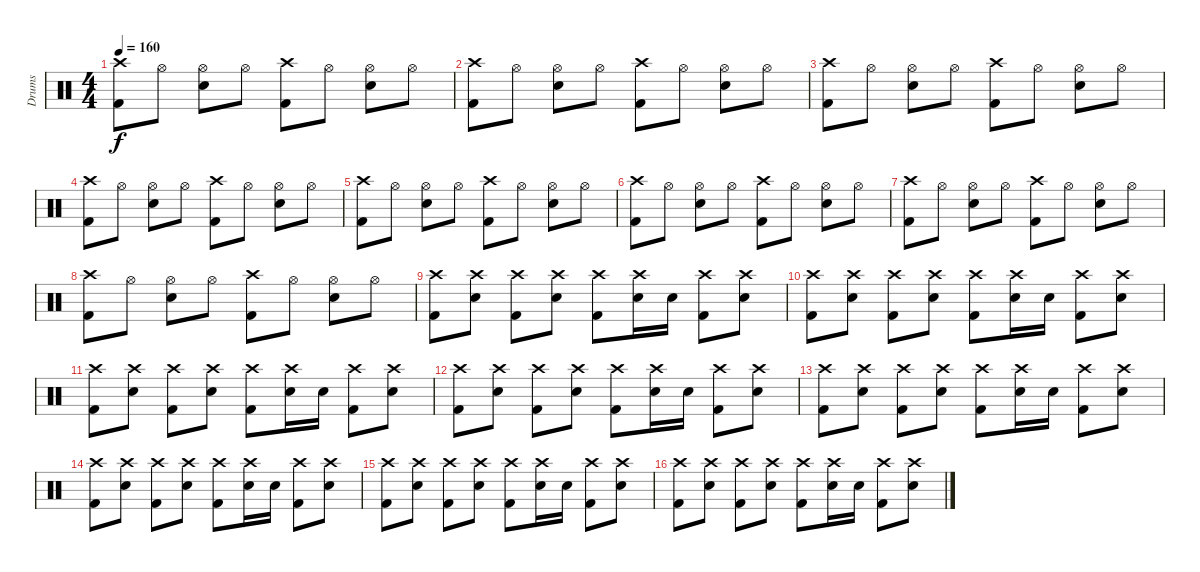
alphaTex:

\track ("Drums" "Drums") {instrument percussion}
\staff {score}
\articulation defaults
\ts (4 4)
\tempo 160
\clef neutral
\ks c
("Crash high (hit)" "Kick (hit) 2").8{dy f} "Hi-Hat (open)".8 ("Snare (hit) 2" "Hi-Hat (open)").8 "Hi-Hat (open)".8 ("Crash high (hit)" "Kick (hit) 2").8 "Hi-Hat (open)".8 ("Snare (hit) 2" "Hi-Hat (open)").8 "Hi-Hat (open)".8 |
("Crash high (hit)" "Kick (hit) 2").8 "Hi-Hat (open)".8 ("Snare (hit) 2" "Hi-Hat (open)").8 "Hi-Hat (open)".8 ("Crash high (hit)" "Kick (hit) 2").8 "Hi-Hat (open)".8 ("Snare (hit) 2" "Hi-Hat (open)").8 "Hi-Hat (open)".8 |
("Crash high (hit)" "Kick (hit) 2").8 "Hi-Hat (open)".8 ("Snare (hit) 2" "Hi-Hat (open)").8 "Hi-Hat (open)".8 ("Crash high (hit)" "Kick (hit) 2").8 "Hi-Hat (open)".8 ("Snare (hit) 2" "Hi-Hat (open)").8 "Hi-Hat (open)".8 |
("Crash high (hit)" "Kick (hit) 2").8 "Hi-Hat (open)".8 ("Snare (hit) 2" "Hi-Hat (open)").8 "Hi-Hat (open)".8 ("Crash high (hit)" "Kick (hit) 2").8 "Hi-Hat (open)".8 ("Snare (hit) 2" "Hi-Hat (open)").8 "Hi-Hat (open)".8 |
("Crash high (hit)" "Kick (hit) 2").8 "Hi-Hat (open)".8 ("Snare (hit) 2" "Hi-Hat (open)").8 "Hi-Hat (open)".8 ("Crash high (hit)" "Kick (hit) 2").8 "Hi-Hat (open)".8 ("Snare (hit) 2" "Hi-Hat (open)").8 "Hi-Hat (open)".8 |
("Crash high (hit)" "Kick (hit) 2").8 "Hi-Hat (open)".8 ("Snare (hit) 2" "Hi-Hat (open)").8 "Hi-Hat (open)".8 ("Crash high (hit)" "Kick (hit) 2").8 "Hi-Hat (open)".8 ("Snare (hit) 2" "Hi-Hat (open)").8 "Hi-Hat (open)".8 |
("Crash high (hit)" "Kick (hit) 2").8 "Hi-Hat (open)".8 ("Snare (hit) 2" "Hi-Hat (open)").8 "Hi-Hat (open)".8 ("Crash high (hit)" "Kick (hit) 2").8 "Hi-Hat (open)".8 ("Snare (hit) 2" "Hi-Hat (open)").8 "Hi-Hat (open)".8 |
("Crash high (hit)" "Kick (hit) 2").8 "Hi-Hat (open)".8 ("Snare (hit) 2" "Hi-Hat (open)").8 "Hi-Hat (open)".8 ("Crash high (hit)" "Kick (hit) 2").8 "Hi-Hat (open)".8 ("Snare (hit) 2" "Hi-Hat (open)").8 "Hi-Hat (open)".8 |
("Crash high (hit)" "Kick (hit) 2").8 ("Crash high (hit)" "Snare (hit) 2").8 ("Crash high (hit)" "Kick (hit) 2").8 ("Crash high (hit)" "Snare (hit) 2").8 ("Crash high (hit)" "Kick (hit) 2").8 ("Crash high (hit)" "Snare (hit) 2").16 "Snare (hit) 2".16 ("Crash high (hit)" "Kick (hit) 2").8 ("Crash high (hit)" "Snare (hit) 2").8 |
("Crash high (hit)" "Kick (hit) 2").8 ("Crash high (hit)" "Snare (hit) 2").8 ("Crash high (hit)" "Kick (hit) 2").8 ("Crash high (hit)" "Snare (hit) 2").8 ("Crash high (hit)" "Kick (hit) 2").8 ("Crash high (hit)" "Snare (hit) 2").16 "Snare (hit) 2".16 ("Crash high (hit)" "Kick (hit) 2").8 ("Crash high (hit)" "Snare (hit) 2").8 |
("Crash high (hit)" "Kick (hit) 2").8 ("Crash high (hit)" "Snare (hit) 2").8 ("Crash high (hit)" "Kick (hit) 2").8 ("Crash high (hit)" "Snare (hit) 2").8 ("Crash high (hit)" "Kick (hit) 2").8 ("Crash high (hit)" "Snare (hit) 2").16 "Snare (hit) 2".16 ("Crash high (hit)" "Kick (hit) 2").8 ("Crash high (hit)" "Snare (hit) 2").8 |
("Crash high (hit)" "Kick (hit) 2").8 ("Crash high (hit)" "Snare (hit) 2").8 ("Crash high (hit)" "Kick (hit) 2").8 ("Crash high (hit)" "Snare (hit) 2").8 ("Crash high (hit)" "Kick (hit) 2").8 ("Crash high (hit)" "Snare (hit) 2").16 "Snare (hit) 2".16 ("Crash high (hit)" "Kick (hit) 2").8 ("Crash high (hit)" "Snare (hit) 2").8 |
("Crash high (hit)" "Kick (hit) 2").8 ("Crash high (hit)" "Snare (hit) 2").8 ("Crash high (hit)" "Kick (hit) 2").8 ("Crash high (hit)" "Snare (hit) 2").8 ("Crash high (hit)" "Kick (hit) 2").8 ("Crash high (hit)" "Snare (hit) 2").16 "Snare (hit) 2".16 ("Crash high (hit)" "Kick (hit) 2").8 ("Crash high (hit)" "Snare (hit) 2").8 |
("Crash high (hit)" "Kick (hit) 2").8 ("Crash high (hit)" "Snare (hit) 2").8 ("Crash high (hit)" "Kick (hit) 2").8 ("Crash high (hit)" "Snare (hit) 2").8 ("Crash high (hit)" "Kick (hit) 2").8 ("Crash high (hit)" "Snare (hit) 2").16 "Snare (hit) 2".16 ("Crash high (hit)" "Kick (hit) 2").8 ("Crash high (hit)" "Snare (hit) 2").8 |
("Crash high (hit)" "Kick (hit) 2").8 ("Crash high (hit)" "Snare (hit) 2").8 ("Crash high (hit)" "Kick (hit) 2").8 ("Crash high (hit)" "Snare (hit) 2").8 ("Crash high (hit)" "Kick (hit) 2").8 ("Crash high (hit)" "Snare (hit) 2").16 "Snare (hit) 2".16 ("Crash high (hit)" "Kick (hit) 2").8 ("Crash high (hit)" "Snare (hit) 2").8 |
("Crash high (hit)" "Kick (hit) 2").8 ("Crash high (hit)" "Snare (hit) 2").8 ("Crash high (hit)" "Kick (hit) 2").8 ("Crash high (hit)" "Snare (hit) 2").8 ("Crash high (hit)" "Kick (hit) 2").8 ("Crash high (hit)" "Snare (hit) 2").16 "Snare (hit) 2".16 ("Crash high (hit)" "Kick (hit) 2").8 ("Crash high (hit)" "Snare (hit) 2").8
